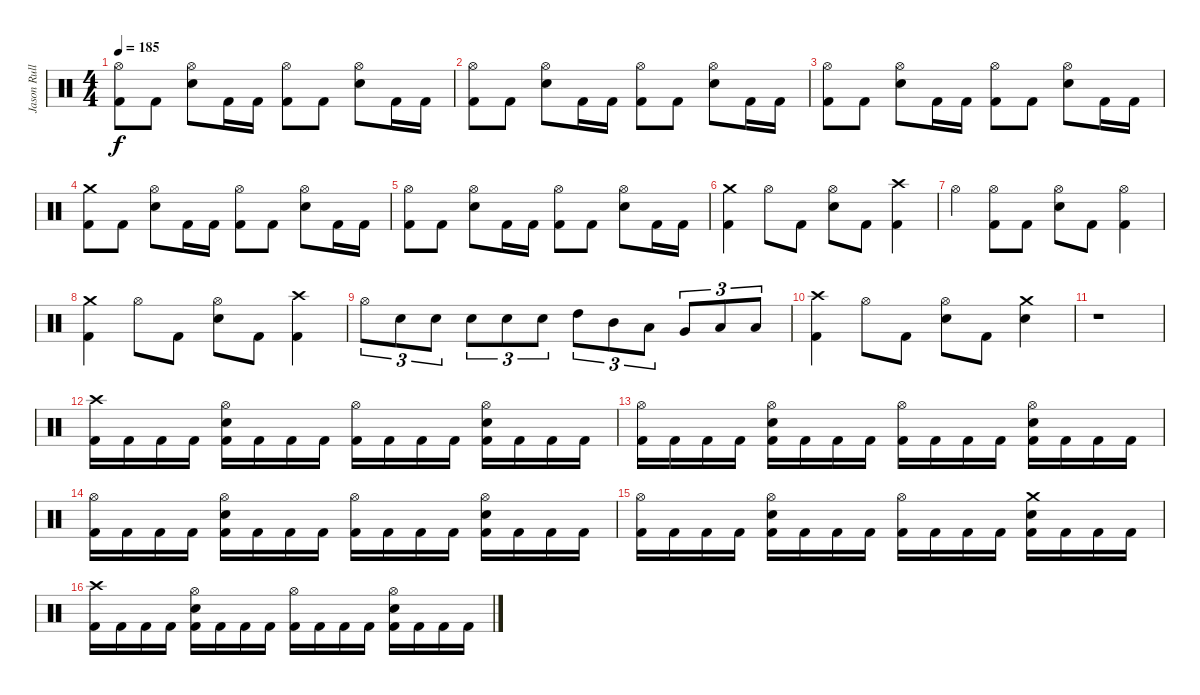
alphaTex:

\track ("Jason Rullo" "Jason Rull") {instrument percussion}
\staff {score}
\articulation defaults
\ts (4 4)
\tempo 185
\clef neutral
\ks c
("Hi-Hat (open)" "Kick (hit) 2").8{dy f} "Kick (hit) 2".8 ("Hi-Hat (open)" "Snare (hit) 2").8 "Kick (hit) 2".16 "Kick (hit) 2".16 ("Hi-Hat (open)" "Kick (hit) 2").8 "Kick (hit) 2".8 ("Hi-Hat (open)" "Snare (hit) 2").8 "Kick (hit) 2".16 "Kick (hit) 2".16 |
("Hi-Hat (open)" "Kick (hit) 2").8 "Kick (hit) 2".8 ("Hi-Hat (open)" "Snare (hit) 2").8 "Kick (hit) 2".16 "Kick (hit) 2".16 ("Hi-Hat (open)" "Kick (hit) 2").8 "Kick (hit) 2".8 ("Hi-Hat (open)" "Snare (hit) 2").8 "Kick (hit) 2".16 "Kick (hit) 2".16 |
("Hi-Hat (open)" "Kick (hit) 2").8 "Kick (hit) 2".8 ("Hi-Hat (open)" "Snare (hit) 2").8 "Kick (hit) 2".16 "Kick (hit) 2".16 ("Hi-Hat (open)" "Kick (hit) 2").8 "Kick (hit) 2".8 ("Hi-Hat (open)" "Snare (hit) 2").8 "Kick (hit) 2".16 "Kick (hit) 2".16 |
("Crash medium (hit)" "Kick (hit) 2").8 "Kick (hit) 2".8 ("Hi-Hat (open)" "Snare (hit) 2").8 "Kick (hit) 2".16 "Kick (hit) 2".16 ("Hi-Hat (open)" "Kick (hit) 2").8 "Kick (hit) 2".8 ("Hi-Hat (open)" "Snare (hit) 2").8 "Kick (hit) 2".16 "Kick (hit) 2".16 |
("Hi-Hat (open)" "Kick (hit) 2").8 "Kick (hit) 2".8 ("Hi-Hat (open)" "Snare (hit) 2").8 "Kick (hit) 2".16 "Kick (hit) 2".16 ("Hi-Hat (open)" "Kick (hit) 2").8 "Kick (hit) 2".8 ("Hi-Hat (open)" "Snare (hit) 2").8 "Kick (hit) 2".16 "Kick (hit) 2".16 |
("Crash medium (hit)" "Kick (hit) 2").4 "Hi-Hat (open)".8 "Kick (hit) 2".8 ("Hi-Hat (open)" "Snare (hit) 2").8 "Kick (hit) 2".8 ("Crash high (hit)" "Kick (hit) 2").4 |
"Hi-Hat (open)".4 ("Hi-Hat (open)" "Kick (hit) 2").8 "Kick (hit) 2".8 ("Hi-Hat (open)" "Snare (hit) 2").8 "Kick (hit) 2".8 ("Hi-Hat (open)" "Kick (hit) 2").4 |
("Crash medium (hit)" "Kick (hit) 2").4 "Hi-Hat (open)".8 "Kick (hit) 2".8 ("Hi-Hat (open)" "Snare (hit) 2").8 "Kick (hit) 2".8 ("Crash high (hit)" "Kick (hit) 2").4 |
"Hi-Hat (open)".8{tu (3 2)} "Snare (hit) 2".8{tu (3 2)} "Snare (hit) 2".8{tu (3 2)} "Snare (hit) 2".8{tu (3 2)} "Snare (hit) 2".8{tu (3 2)} "Snare (hit) 2".8{tu (3 2)} "High Tom (hit)".8{tu (3 2)} "Mid Tom (hit)".8{tu (3 2)} "Low Tom (hit)".8{tu (3 2)} "Very Low Tom (hit)".8{tu (3 2)} "Low Floor Tom (hit)".8{tu (3 2)} "Low Floor Tom (hit)".8{tu (3 2)} |
("Crash high (hit)" "Kick (hit) 2").4 "Hi-Hat (open)".8 "Kick (hit) 2".8 ("Hi-Hat (open)" "Snare (hit) 2").8 "Kick (hit) 2".8 ("Crash medium (hit)" "Snare (hit) 2").4 |
r.1 |
("Crash high (hit)" "Kick (hit) 2").16 "Kick (hit) 2".16 "Kick (hit) 2".16 "Kick (hit) 2".16 ("Hi-Hat (open)" "Snare (hit) 2" "Kick (hit) 2").16 "Kick (hit) 2".16 "Kick (hit) 2".16 "Kick (hit) 2".16 ("Hi-Hat (open)" "Kick (hit) 2").16 "Kick (hit) 2".16 "Kick (hit) 2".16 "Kick (hit) 2".16 ("Hi-Hat (open)" "Snare (hit) 2" "Kick (hit) 2").16 "Kick (hit) 2".16 "Kick (hit) 2".16 "Kick (hit) 2".16 |
("Hi-Hat (open)" "Kick (hit) 2").16 "Kick (hit) 2".16 "Kick (hit) 2".16 "Kick (hit) 2".16 ("Hi-Hat (open)" "Snare (hit) 2" "Kick (hit) 2").16 "Kick (hit) 2".16 "Kick (hit) 2".16 "Kick (hit) 2".16 ("Hi-Hat (open)" "Kick (hit) 2").16 "Kick (hit) 2".16 "Kick (hit) 2".16 "Kick (hit) 2".16 ("Hi-Hat (open)" "Snare (hit) 2" "Kick (hit) 2").16 "Kick (hit) 2".16 "Kick (hit) 2".16 "Kick (hit) 2".16 |
("Hi-Hat (open)" "Kick (hit) 2").16 "Kick (hit) 2".16 "Kick (hit) 2".16 "Kick (hit) 2".16 ("Hi-Hat (open)" "Snare (hit) 2" "Kick (hit) 2").16 "Kick (hit) 2".16 "Kick (hit) 2".16 "Kick (hit) 2".16 ("Hi-Hat (open)" "Kick (hit) 2").16 "Kick (hit) 2".16 "Kick (hit) 2".16 "Kick (hit) 2".16 ("Hi-Hat (open)" "Snare (hit) 2" "Kick (hit) 2").16 "Kick (hit) 2".16 "Kick (hit) 2".16 "Kick (hit) 2".16 |
("Hi-Hat (open)" "Kick (hit) 2").16 "Kick (hit) 2".16 "Kick (hit) 2".16 "Kick (hit) 2".16 ("Hi-Hat (open)" "Snare (hit) 2" "Kick (hit) 2").16 "Kick (hit) 2".16 "Kick (hit) 2".16 "Kick (hit) 2".16 ("Hi-Hat (open)" "Kick (hit) 2").16 "Kick (hit) 2".16 "Kick (hit) 2".16 "Kick (hit) 2".16 ("Crash medium (hit)" "Snare (hit) 2" "Kick (hit) 2").16 "Kick (hit) 2".16 "Kick (hit) 2".16 "Kick (hit) 2".16 |
("Crash high (hit)" "Kick (hit) 2").16 "Kick (hit) 2".16 "Kick (hit) 2".16 "Kick (hit) 2".16 ("Hi-Hat (open)" "Snare (hit) 2" "Kick (hit) 2").16 "Kick (hit) 2".16 "Kick (hit) 2".16 "Kick (hit) 2".16 ("Hi-Hat (open)" "Kick (hit) 2").16 "Kick (hit) 2".16 "Kick (hit) 2".16 "Kick (hit) 2".16 ("Hi-Hat (open)" "Snare (hit) 2" "Kick (hit) 2").16 "Kick (hit) 2".16 "Kick (hit) 2".16 "Kick (hit) 2".16
